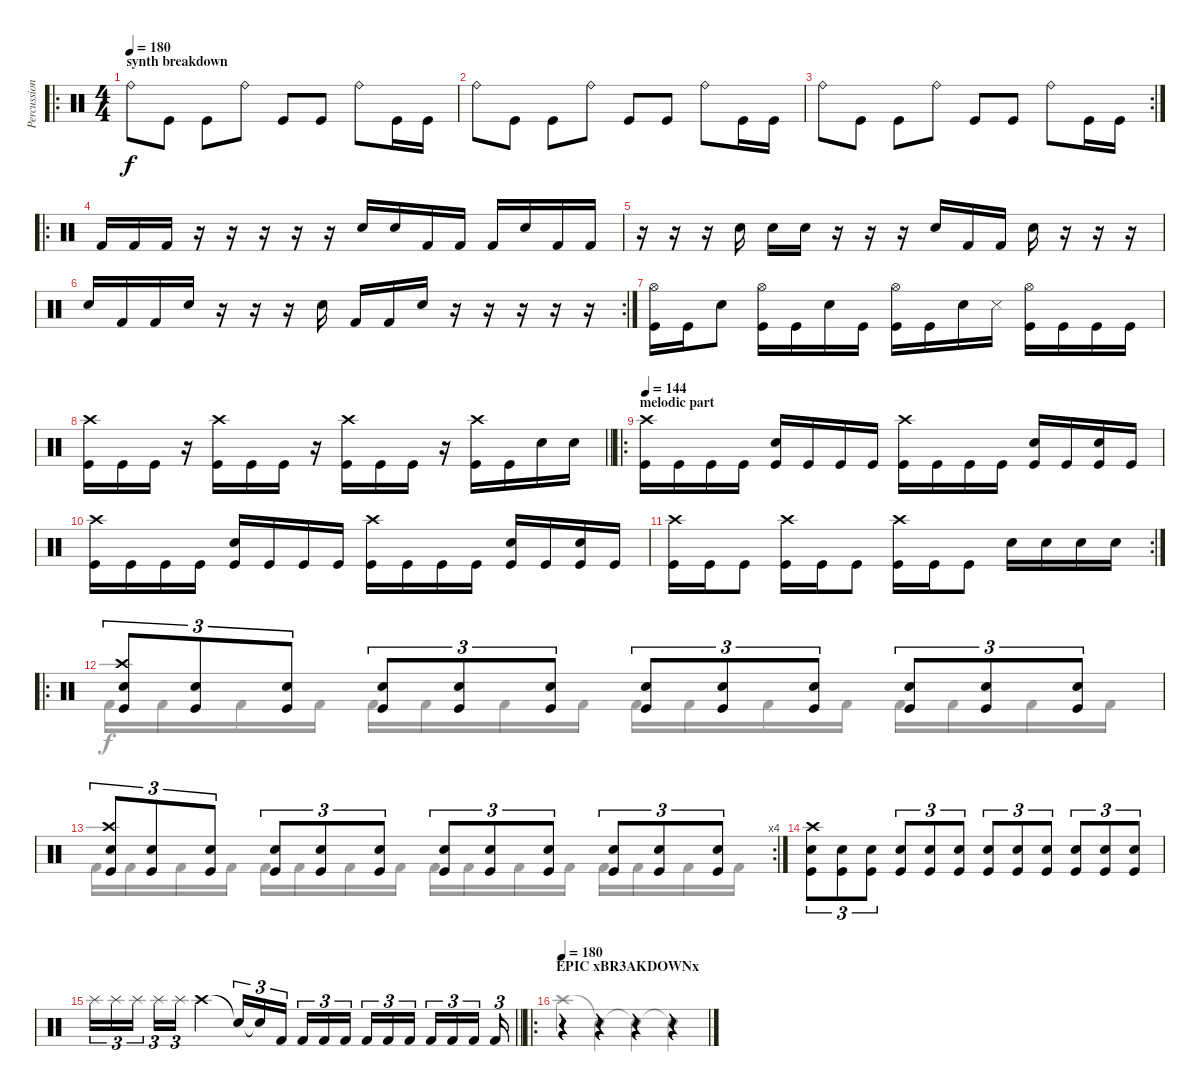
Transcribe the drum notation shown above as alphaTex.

\track ("Percussion" "Percussion") {instrument percussion}
\staff {score}
\articulation defaults
\voice
\ro
\ts (4 4)
\section ("" "synth breakdown")
\tempo 180
\clef neutral
\ks c "Ride (bell)".8{dy f} "Kick (hit)".8 "Kick (hit)".8 "Ride (bell)".8 "Kick (hit)".8 "Kick (hit)".8 "Ride (bell)".8 "Kick (hit)".16 "Kick (hit)".16
|
"Ride (bell)".8 "Kick (hit)".8 "Kick (hit)".8 "Ride (bell)".8 "Kick (hit)".8 "Kick (hit)".8 "Ride (bell)".8 "Kick (hit)".16 "Kick (hit)".16 |
\rc 2 "Ride (bell)".8 "Kick (hit)".8 "Kick (hit)".8 "Ride (bell)".8 "Kick (hit)".8 "Kick (hit)".8 "Ride (bell)".8 "Kick (hit)".16 "Kick (hit)".16
|
\ro "Kick (hit) 2".16 "Kick (hit) 2".16 "Kick (hit) 2".16
r.16 r.16 r.16 r.16 r.16 "Snare (hit) 2".16 "Snare (hit) 2".16 "Kick (hit) 2".16 "Kick (hit) 2".16 "Kick (hit) 2".16 "Snare (hit) 2".16 "Kick (hit) 2".16 "Kick (hit) 2".16 |
r.16 r.16 r.16 "Snare (hit) 2".16 "Snare (hit) 2".16 "Snare (hit) 2".16 r.16 r.16 r.16 "Snare (hit) 2".16 "Kick (hit) 2".16 "Kick (hit) 2".16 "Snare (hit) 2".16 r.16 r.16 r.16 |
\rc 2 "Snare (hit) 2".16 "Kick (hit) 2".16 "Kick (hit) 2".16 "Snare (hit) 2".16
r.16 r.16 r.16 "Snare (hit) 2".16 "Kick (hit) 2".16 "Kick (hit) 2".16 "Snare (hit) 2".16 r.16 r.16 r.16 r.16 r.16 |
("Hi-Hat (open)" "Kick (hit)").16 "Kick (hit)".16 "Snare (hit) 2".8 ("Hi-Hat (open)" "Kick (hit)").16 "Kick (hit)".16 "Snare (hit) 2".16 "Kick (hit)".16 ("Hi-Hat (open)" "Kick (hit)").16 "Kick (hit)".16 "Snare (hit) 2".16 "Snare (side stick) 3".16 ("Hi-Hat (open)" "Kick (hit)").16 "Kick (hit)".16 "Kick (hit)".16 "Kick (hit)".16 |
\barLineRight lightlight
("Kick (hit)" "Crash high (hit)").16 "Kick (hit)".16 "Kick (hit)".16 r.16 ("Kick (hit)" "Crash high (hit)").16 "Kick (hit)".16 "Kick (hit)".16 r.16 ("Kick (hit)" "Crash high (hit)").16 "Kick (hit)".16 "Kick (hit)".16 r.16 ("Kick (hit)" "Crash high (hit)").16 "Kick (hit)".16 "Snare (hit) 2".16 "Snare (hit) 2".16 |
\ro
\section ("" "melodic part")
\tempo 144
("Crash high (hit)" "Kick (hit)").16 "Kick (hit)".16 "Kick (hit)".16 "Kick (hit)".16 ("Snare (hit) 2" "Kick (hit)").16 "Kick (hit)".16 "Kick (hit)".16 "Kick (hit)".16 ("Crash high (hit)" "Kick (hit)").16 "Kick (hit)".16 "Kick (hit)".16 "Kick (hit)".16 ("Snare (hit) 2" "Kick (hit)").16 "Kick (hit)".16 ("Snare (hit) 2" "Kick (hit)").16 "Kick (hit)".16 |
("Crash high (hit)" "Kick (hit)").16 "Kick (hit)".16 "Kick (hit)".16 "Kick (hit)".16 ("Snare (hit) 2" "Kick (hit)").16 "Kick (hit)".16 "Kick (hit)".16 "Kick (hit)".16 ("Crash high (hit)" "Kick (hit)").16 "Kick (hit)".16 "Kick (hit)".16 "Kick (hit)".16 ("Snare (hit) 2" "Kick (hit)").16 "Kick (hit)".16 ("Snare (hit) 2" "Kick (hit)").16 "Kick (hit)".16 |
\rc 2
("Crash high (hit)" "Kick (hit)").16 "Kick (hit)".16 "Kick (hit)".8 ("Crash high (hit)" "Kick (hit)").16 "Kick (hit)".16 "Kick (hit)".8 ("Crash high (hit)" "Kick (hit)").16 "Kick (hit)".16 "Kick (hit)".8 "Snare (hit) 2".16 "Snare (hit) 2".16 "Snare (hit) 2".16 "Snare (hit) 2".16 |
\ro
("Kick (hit)" "Snare (hit) 2" "Crash high (hit)").8{tu (3 2)} ("Kick (hit)" "Snare (hit) 2").8{tu (3 2)} ("Kick (hit)" "Snare (hit) 2").8{tu (3 2)} ("Kick (hit)" "Snare (hit) 2").8{tu (3 2)} ("Kick (hit)" "Snare (hit) 2").8{tu (3 2)} ("Kick (hit)" "Snare (hit) 2").8{tu (3 2)} ("Kick (hit)" "Snare (hit) 2").8{tu (3 2)} ("Kick (hit)" "Snare (hit) 2").8{tu (3 2)} ("Kick (hit)" "Snare (hit) 2").8{tu (3 2)} ("Kick (hit)" "Snare (hit) 2").8{tu (3 2)} ("Kick (hit)" "Snare (hit) 2").8{tu (3 2)} ("Kick (hit)" "Snare (hit) 2").8{tu (3 2)} |
\rc 4
("Kick (hit)" "Snare (hit) 2" "Crash high (hit)").8{tu (3 2)} ("Kick (hit)" "Snare (hit) 2").8{tu (3 2)} ("Kick (hit)" "Snare (hit) 2").8{tu (3 2)} ("Kick (hit)" "Snare (hit) 2").8{tu (3 2)} ("Kick (hit)" "Snare (hit) 2").8{tu (3 2)} ("Kick (hit)" "Snare (hit) 2").8{tu (3 2)} ("Kick (hit)" "Snare (hit) 2").8{tu (3 2)} ("Kick (hit)" "Snare (hit) 2").8{tu (3 2)} ("Kick (hit)" "Snare (hit) 2").8{tu (3 2)} ("Kick (hit)" "Snare (hit) 2").8{tu (3 2)} ("Kick (hit)" "Snare (hit) 2").8{tu (3 2)} ("Kick (hit)" "Snare (hit) 2").8{tu (3 2)} |
("Kick (hit)" "Snare (hit) 2" "Crash high (hit)").8{tu (3 2)} ("Kick (hit)" "Snare (hit) 2").8{tu (3 2)} ("Kick (hit)" "Snare (hit) 2").8{tu (3 2)} ("Kick (hit)" "Snare (hit) 2").8{tu (3 2)} ("Kick (hit)" "Snare (hit) 2").8{tu (3 2)} ("Kick (hit)" "Snare (hit) 2").8{tu (3 2)} ("Kick (hit)" "Snare (hit) 2").8{tu (3 2)} ("Kick (hit)" "Snare (hit) 2").8{tu (3 2)} ("Kick (hit)" "Snare (hit) 2").8{tu (3 2)} ("Kick (hit)" "Snare (hit) 2").8{tu (3 2)} ("Kick (hit)" "Snare (hit) 2").8{tu (3 2)} ("Kick (hit)" "Snare (hit) 2").8{tu (3 2)} |
\barLineRight lightlight "Splash (hit)".16{tu (3 2)} "Splash (hit)".16{tu (3 2)} "Splash (hit)".16{tu (3 2) beam splitsecondary} "Splash (hit)".16{tu (3 2)} "Splash (hit)".16{tu (3 2)} "Crash high (hit)".4 "Snare (hit)"{t}.16{tu (3 2)} "Snare (hit)"{t}.16{tu (3 2)} "Kick (hit) 2".16{tu (3 2) beam splitsecondary} "Kick (hit) 2".16{tu (3 2)} "Kick (hit) 2".16{tu (3 2)} "Kick (hit) 2".16{tu (3 2) beam splitsecondary} "Kick (hit) 2".16{tu (3 2)} "Kick (hit) 2".16{tu (3 2)} "Kick (hit) 2".16{tu (3 2) beam splitsecondary} "Kick (hit) 2".16{tu (3 2)} "Kick (hit) 2".16{tu (3 2)} "Kick (hit) 2".16{tu (3 2) beam splitsecondary} "Kick (hit) 2".16{tu (3 2)}
|
\ro
\section ("" "EPIC xBR3AKDOWNx ")
\tempo 180
r.4 r.4 r.4 r.4
\voice
\clef neutral
\ottava regular
\simile none
\ks c
|
|
|
|
|
|
|
\barLineRight lightlight
|
|
|
|
"Kick (hit) 2".16 "Kick (hit) 2".16 "Kick (hit) 2".16 "Kick (hit) 2".16 "Kick (hit) 2".16 "Kick (hit) 2".16 "Kick (hit) 2".16 "Kick (hit) 2".16 "Kick (hit) 2".16 "Kick (hit) 2".16 "Kick (hit) 2".16 "Kick (hit) 2".16 "Kick (hit) 2".16 "Kick (hit) 2".16 "Kick (hit) 2".16 "Kick (hit) 2".16 |
"Kick (hit) 2".16 "Kick (hit) 2".16 "Kick (hit) 2".16 "Kick (hit) 2".16 "Kick (hit) 2".16 "Kick (hit) 2".16 "Kick (hit) 2".16 "Kick (hit) 2".16 "Kick (hit) 2".16 "Kick (hit) 2".16 "Kick (hit) 2".16 "Kick (hit) 2".16 "Kick (hit) 2".16 "Kick (hit) 2".16 "Kick (hit) 2".16 "Kick (hit) 2".16 |
|
\barLineRight lightlight
|
"Crash high (hit)".4 "Snare (hit)"{t}.4 "Snare (hit)"{t}.4 "Snare (hit)"{t}.4
